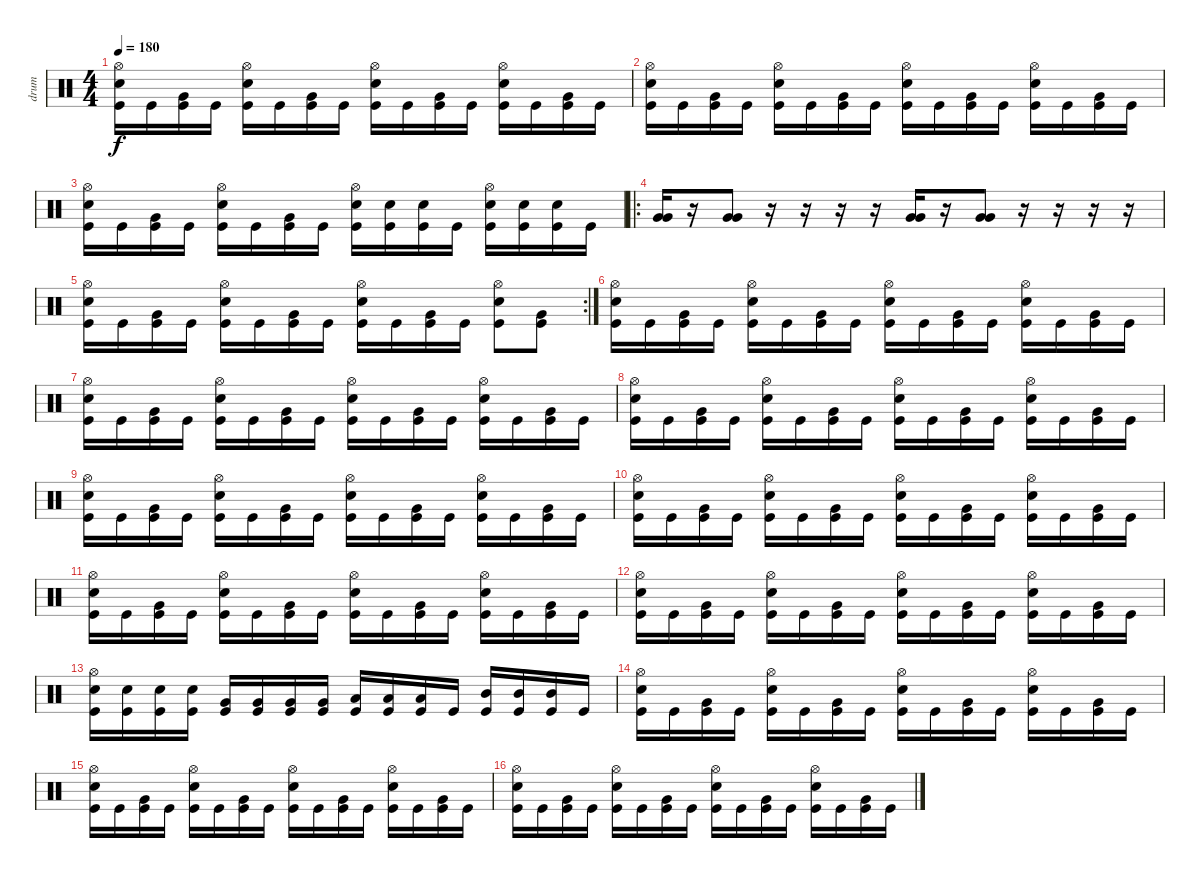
\track ("drum" "drum") {instrument percussion}
\staff {score}
\articulation defaults
\ts (4 4)
\tempo 180
\clef neutral
\ks c
("Kick (hit)" "Snare (hit) 2" "Hi-Hat (open)").16{dy f} "Kick (hit)".16 ("Kick (hit)" "Very Low Tom (hit)").16 "Kick (hit)".16 ("Kick (hit)" "Snare (hit) 2" "Hi-Hat (open)").16 "Kick (hit)".16 ("Kick (hit)" "Very Low Tom (hit)").16 "Kick (hit)".16 ("Kick (hit)" "Snare (hit) 2" "Hi-Hat (open)").16 "Kick (hit)".16 ("Kick (hit)" "Very Low Tom (hit)").16 "Kick (hit)".16 ("Kick (hit)" "Snare (hit) 2" "Hi-Hat (open)").16 "Kick (hit)".16 ("Kick (hit)" "Very Low Tom (hit)").16 "Kick (hit)".16 |
("Kick (hit)" "Snare (hit) 2" "Hi-Hat (open)").16 "Kick (hit)".16 ("Kick (hit)" "Very Low Tom (hit)").16 "Kick (hit)".16 ("Kick (hit)" "Snare (hit) 2" "Hi-Hat (open)").16 "Kick (hit)".16 ("Kick (hit)" "Very Low Tom (hit)").16 "Kick (hit)".16 ("Kick (hit)" "Snare (hit) 2" "Hi-Hat (open)").16 "Kick (hit)".16 ("Kick (hit)" "Very Low Tom (hit)").16 "Kick (hit)".16 ("Kick (hit)" "Snare (hit) 2" "Hi-Hat (open)").16 "Kick (hit)".16 ("Kick (hit)" "Very Low Tom (hit)").16 "Kick (hit)".16 |
("Kick (hit)" "Snare (hit) 2" "Hi-Hat (open)").16 "Kick (hit)".16 ("Kick (hit)" "Very Low Tom (hit)").16 "Kick (hit)".16 ("Kick (hit)" "Snare (hit) 2" "Hi-Hat (open)").16 "Kick (hit)".16 ("Kick (hit)" "Very Low Tom (hit)").16 "Kick (hit)".16 ("Kick (hit)" "Snare (hit) 2" "Hi-Hat (open)").16 ("Kick (hit)" "Snare (hit) 2").16 ("Kick (hit)" "Snare (hit) 2").16 "Kick (hit)".16 ("Kick (hit)" "Snare (hit) 2" "Hi-Hat (open)").16 ("Kick (hit)" "Snare (hit) 2").16 ("Kick (hit)" "Snare (hit) 2").16 "Kick (hit)".16 |
\ro
("Very Low Tom (hit)" "Very Low Tom (hit)").16 r.16 ("Very Low Tom (hit)" "Very Low Tom (hit)").8 r.16 r.16 r.16 r.16 ("Very Low Tom (hit)" "Very Low Tom (hit)").16 r.16 ("Very Low Tom (hit)" "Very Low Tom (hit)").8 r.16 r.16 r.16 r.16 |
\rc 2
("Kick (hit)" "Hi-Hat (open)" "Snare (hit) 2").16 "Kick (hit)".16 ("Kick (hit)" "Very Low Tom (hit)").16 "Kick (hit)".16 ("Kick (hit)" "Hi-Hat (open)" "Snare (hit) 2").16 "Kick (hit)".16 ("Kick (hit)" "Very Low Tom (hit)").16 "Kick (hit)".16 ("Kick (hit)" "Hi-Hat (open)" "Snare (hit) 2").16 "Kick (hit)".16 ("Kick (hit)" "Very Low Tom (hit)").16 "Kick (hit)".16 ("Kick (hit)" "Hi-Hat (open)" "Snare (hit) 2").8 ("Kick (hit)" "Very Low Tom (hit)").8 |
("Kick (hit)" "Snare (hit) 2" "Hi-Hat (open)").16 "Kick (hit)".16 ("Kick (hit)" "Very Low Tom (hit)").16 "Kick (hit)".16 ("Kick (hit)" "Snare (hit) 2" "Hi-Hat (open)").16 "Kick (hit)".16 ("Kick (hit)" "Very Low Tom (hit)").16 "Kick (hit)".16 ("Kick (hit)" "Snare (hit) 2" "Hi-Hat (open)").16 "Kick (hit)".16 ("Kick (hit)" "Very Low Tom (hit)").16 "Kick (hit)".16 ("Kick (hit)" "Snare (hit) 2" "Hi-Hat (open)").16 "Kick (hit)".16 ("Kick (hit)" "Very Low Tom (hit)").16 "Kick (hit)".16 |
("Kick (hit)" "Snare (hit) 2" "Hi-Hat (open)").16 "Kick (hit)".16 ("Kick (hit)" "Very Low Tom (hit)").16 "Kick (hit)".16 ("Kick (hit)" "Snare (hit) 2" "Hi-Hat (open)").16 "Kick (hit)".16 ("Kick (hit)" "Very Low Tom (hit)").16 "Kick (hit)".16 ("Kick (hit)" "Snare (hit) 2" "Hi-Hat (open)").16 "Kick (hit)".16 ("Kick (hit)" "Very Low Tom (hit)").16 "Kick (hit)".16 ("Kick (hit)" "Snare (hit) 2" "Hi-Hat (open)").16 "Kick (hit)".16 ("Kick (hit)" "Very Low Tom (hit)").16 "Kick (hit)".16 |
("Kick (hit)" "Snare (hit) 2" "Hi-Hat (open)").16 "Kick (hit)".16 ("Kick (hit)" "Very Low Tom (hit)").16 "Kick (hit)".16 ("Kick (hit)" "Snare (hit) 2" "Hi-Hat (open)").16 "Kick (hit)".16 ("Kick (hit)" "Very Low Tom (hit)").16 "Kick (hit)".16 ("Kick (hit)" "Snare (hit) 2" "Hi-Hat (open)").16 "Kick (hit)".16 ("Kick (hit)" "Very Low Tom (hit)").16 "Kick (hit)".16 ("Kick (hit)" "Snare (hit) 2" "Hi-Hat (open)").16 "Kick (hit)".16 ("Kick (hit)" "Very Low Tom (hit)").16 "Kick (hit)".16 |
("Kick (hit)" "Snare (hit) 2" "Hi-Hat (open)").16 "Kick (hit)".16 ("Kick (hit)" "Very Low Tom (hit)").16 "Kick (hit)".16 ("Kick (hit)" "Snare (hit) 2" "Hi-Hat (open)").16 "Kick (hit)".16 ("Kick (hit)" "Very Low Tom (hit)").16 "Kick (hit)".16 ("Kick (hit)" "Snare (hit) 2" "Hi-Hat (open)").16 "Kick (hit)".16 ("Kick (hit)" "Very Low Tom (hit)").16 "Kick (hit)".16 ("Kick (hit)" "Snare (hit) 2" "Hi-Hat (open)").16 "Kick (hit)".16 ("Kick (hit)" "Very Low Tom (hit)").16 "Kick (hit)".16 |
("Kick (hit)" "Snare (hit) 2" "Hi-Hat (open)").16 "Kick (hit)".16 ("Kick (hit)" "Very Low Tom (hit)").16 "Kick (hit)".16 ("Kick (hit)" "Snare (hit) 2" "Hi-Hat (open)").16 "Kick (hit)".16 ("Kick (hit)" "Very Low Tom (hit)").16 "Kick (hit)".16 ("Kick (hit)" "Snare (hit) 2" "Hi-Hat (open)").16 "Kick (hit)".16 ("Kick (hit)" "Very Low Tom (hit)").16 "Kick (hit)".16 ("Kick (hit)" "Snare (hit) 2" "Hi-Hat (open)").16 "Kick (hit)".16 ("Kick (hit)" "Very Low Tom (hit)").16 "Kick (hit)".16 |
("Kick (hit)" "Snare (hit) 2" "Hi-Hat (open)").16 "Kick (hit)".16 ("Kick (hit)" "Very Low Tom (hit)").16 "Kick (hit)".16 ("Kick (hit)" "Snare (hit) 2" "Hi-Hat (open)").16 "Kick (hit)".16 ("Kick (hit)" "Very Low Tom (hit)").16 "Kick (hit)".16 ("Kick (hit)" "Snare (hit) 2" "Hi-Hat (open)").16 "Kick (hit)".16 ("Kick (hit)" "Very Low Tom (hit)").16 "Kick (hit)".16 ("Kick (hit)" "Snare (hit) 2" "Hi-Hat (open)").16 "Kick (hit)".16 ("Kick (hit)" "Very Low Tom (hit)").16 "Kick (hit)".16 |
("Kick (hit)" "Snare (hit) 2" "Hi-Hat (open)").16 "Kick (hit)".16 ("Kick (hit)" "Very Low Tom (hit)").16 "Kick (hit)".16 ("Kick (hit)" "Snare (hit) 2" "Hi-Hat (open)").16 "Kick (hit)".16 ("Kick (hit)" "Very Low Tom (hit)").16 "Kick (hit)".16 ("Kick (hit)" "Snare (hit) 2" "Hi-Hat (open)").16 "Kick (hit)".16 ("Kick (hit)" "Very Low Tom (hit)").16 "Kick (hit)".16 ("Kick (hit)" "Snare (hit) 2" "Hi-Hat (open)").16 "Kick (hit)".16 ("Kick (hit)" "Very Low Tom (hit)").16 "Kick (hit)".16 |
("Kick (hit)" "Snare (hit) 2" "Hi-Hat (open)").16 ("Kick (hit)" "Snare (hit) 2").16 ("Kick (hit)" "Snare (hit) 2").16 ("Kick (hit)" "Snare (hit) 2").16 ("Kick (hit)" "Very Low Tom (hit)").16 ("Kick (hit)" "Very Low Tom (hit)").16 ("Kick (hit)" "Very Low Tom (hit)").16 ("Kick (hit)" "Very Low Tom (hit)").16 ("Kick (hit)" "Low Tom (hit)").16 ("Kick (hit)" "Low Tom (hit)").16 ("Kick (hit)" "Low Tom (hit)").16 "Kick (hit)".16 ("Kick (hit)" "Mid Tom (hit)").16 ("Kick (hit)" "Mid Tom (hit)").16 ("Kick (hit)" "Mid Tom (hit)").16 "Kick (hit)".16 |
("Kick (hit)" "Snare (hit) 2" "Hi-Hat (open)").16 "Kick (hit)".16 ("Kick (hit)" "Very Low Tom (hit)").16 "Kick (hit)".16 ("Kick (hit)" "Snare (hit) 2" "Hi-Hat (open)").16 "Kick (hit)".16 ("Kick (hit)" "Very Low Tom (hit)").16 "Kick (hit)".16 ("Kick (hit)" "Snare (hit) 2" "Hi-Hat (open)").16 "Kick (hit)".16 ("Kick (hit)" "Very Low Tom (hit)").16 "Kick (hit)".16 ("Kick (hit)" "Snare (hit) 2" "Hi-Hat (open)").16 "Kick (hit)".16 ("Kick (hit)" "Very Low Tom (hit)").16 "Kick (hit)".16 |
("Kick (hit)" "Snare (hit) 2" "Hi-Hat (open)").16 "Kick (hit)".16 ("Kick (hit)" "Very Low Tom (hit)").16 "Kick (hit)".16 ("Kick (hit)" "Snare (hit) 2" "Hi-Hat (open)").16 "Kick (hit)".16 ("Kick (hit)" "Very Low Tom (hit)").16 "Kick (hit)".16 ("Kick (hit)" "Snare (hit) 2" "Hi-Hat (open)").16 "Kick (hit)".16 ("Kick (hit)" "Very Low Tom (hit)").16 "Kick (hit)".16 ("Kick (hit)" "Snare (hit) 2" "Hi-Hat (open)").16 "Kick (hit)".16 ("Kick (hit)" "Very Low Tom (hit)").16 "Kick (hit)".16 |
("Kick (hit)" "Snare (hit) 2" "Hi-Hat (open)").16 "Kick (hit)".16 ("Kick (hit)" "Very Low Tom (hit)").16 "Kick (hit)".16 ("Kick (hit)" "Snare (hit) 2" "Hi-Hat (open)").16 "Kick (hit)".16 ("Kick (hit)" "Very Low Tom (hit)").16 "Kick (hit)".16 ("Kick (hit)" "Snare (hit) 2" "Hi-Hat (open)").16 "Kick (hit)".16 ("Kick (hit)" "Very Low Tom (hit)").16 "Kick (hit)".16 ("Kick (hit)" "Snare (hit) 2" "Hi-Hat (open)").16 "Kick (hit)".16 ("Kick (hit)" "Very Low Tom (hit)").16 "Kick (hit)".16
